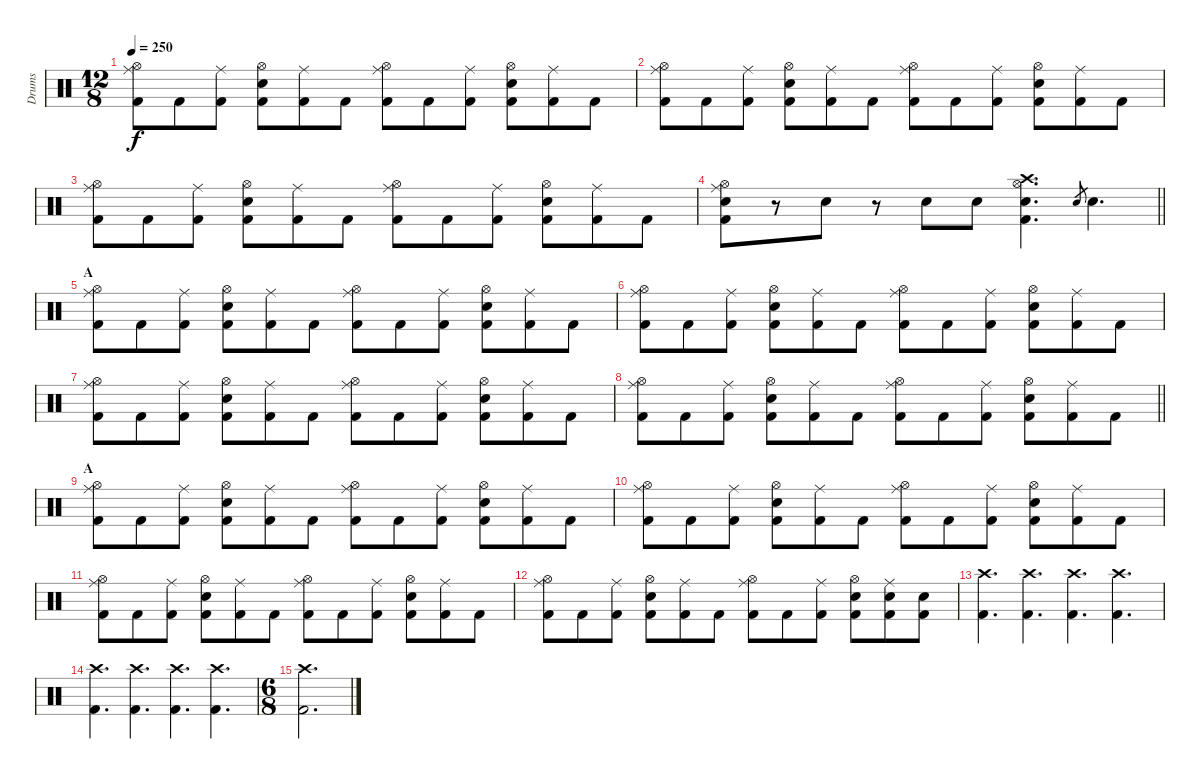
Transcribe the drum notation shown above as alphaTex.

\track ("Drums" "Drums") {instrument percussion}
\staff {score}
\articulation defaults
\ts (12 8)
\tempo 250
\clef neutral
\ks c
("Ride (middle)" "Hi-Hat (open)" "Kick (hit) 2").8{dy f} "Kick (hit) 2".8 ("Ride (middle)" "Kick (hit) 2").8 ("Hi-Hat (open)" "Snare (hit) 2" "Kick (hit) 2").8 ("Ride (middle)" "Kick (hit) 2").8 "Kick (hit) 2".8 ("Ride (middle)" "Hi-Hat (open)" "Kick (hit) 2").8 "Kick (hit) 2".8 ("Ride (middle)" "Kick (hit) 2").8 ("Hi-Hat (open)" "Snare (hit) 2" "Kick (hit) 2").8 ("Ride (middle)" "Kick (hit) 2").8 "Kick (hit) 2".8 |
("Ride (middle)" "Hi-Hat (open)" "Kick (hit) 2").8 "Kick (hit) 2".8 ("Ride (middle)" "Kick (hit) 2").8 ("Hi-Hat (open)" "Snare (hit) 2" "Kick (hit) 2").8 ("Ride (middle)" "Kick (hit) 2").8 "Kick (hit) 2".8 ("Ride (middle)" "Hi-Hat (open)" "Kick (hit) 2").8 "Kick (hit) 2".8 ("Ride (middle)" "Kick (hit) 2").8 ("Hi-Hat (open)" "Snare (hit) 2" "Kick (hit) 2").8 ("Ride (middle)" "Kick (hit) 2").8 "Kick (hit) 2".8 |
("Ride (middle)" "Hi-Hat (open)" "Kick (hit) 2").8 "Kick (hit) 2".8 ("Ride (middle)" "Kick (hit) 2").8 ("Hi-Hat (open)" "Snare (hit) 2" "Kick (hit) 2").8 ("Ride (middle)" "Kick (hit) 2").8 "Kick (hit) 2".8 ("Ride (middle)" "Hi-Hat (open)" "Kick (hit) 2").8 "Kick (hit) 2".8 ("Ride (middle)" "Kick (hit) 2").8 ("Hi-Hat (open)" "Snare (hit) 2" "Kick (hit) 2").8 ("Ride (middle)" "Kick (hit) 2").8 "Kick (hit) 2".8 |
\barLineRight lightlight
("Ride (middle)" "Hi-Hat (open)" "Snare (hit) 2" "Kick (hit) 2").8 r.8 "Snare (hit) 2".8 r.8 "Snare (hit) 2".8 "Snare (hit) 2".8 ("Crash high (hit)" "Hi-Hat (open)" "Snare (hit) 2" "Kick (hit) 2").4{d} "Snare (hit) 2".8{gr} "Snare (hit) 2".4{d} |
\section ("" "A")
("Ride (middle)" "Hi-Hat (open)" "Kick (hit) 2").8 "Kick (hit) 2".8 ("Ride (middle)" "Kick (hit) 2").8 ("Hi-Hat (open)" "Snare (hit) 2" "Kick (hit) 2").8 ("Ride (middle)" "Kick (hit) 2").8 "Kick (hit) 2".8 ("Ride (middle)" "Hi-Hat (open)" "Kick (hit) 2").8 "Kick (hit) 2".8 ("Ride (middle)" "Kick (hit) 2").8 ("Hi-Hat (open)" "Snare (hit) 2" "Kick (hit) 2").8 ("Ride (middle)" "Kick (hit) 2").8 "Kick (hit) 2".8 |
("Ride (middle)" "Hi-Hat (open)" "Kick (hit) 2").8 "Kick (hit) 2".8 ("Ride (middle)" "Kick (hit) 2").8 ("Hi-Hat (open)" "Snare (hit) 2" "Kick (hit) 2").8 ("Ride (middle)" "Kick (hit) 2").8 "Kick (hit) 2".8 ("Ride (middle)" "Hi-Hat (open)" "Kick (hit) 2").8 "Kick (hit) 2".8 ("Ride (middle)" "Kick (hit) 2").8 ("Hi-Hat (open)" "Snare (hit) 2" "Kick (hit) 2").8 ("Ride (middle)" "Kick (hit) 2").8 "Kick (hit) 2".8 |
("Ride (middle)" "Hi-Hat (open)" "Kick (hit) 2").8 "Kick (hit) 2".8 ("Ride (middle)" "Kick (hit) 2").8 ("Hi-Hat (open)" "Snare (hit) 2" "Kick (hit) 2").8 ("Ride (middle)" "Kick (hit) 2").8 "Kick (hit) 2".8 ("Ride (middle)" "Hi-Hat (open)" "Kick (hit) 2").8 "Kick (hit) 2".8 ("Ride (middle)" "Kick (hit) 2").8 ("Hi-Hat (open)" "Snare (hit) 2" "Kick (hit) 2").8 ("Ride (middle)" "Kick (hit) 2").8 "Kick (hit) 2".8 |
\barLineRight lightlight
("Ride (middle)" "Hi-Hat (open)" "Kick (hit) 2").8 "Kick (hit) 2".8 ("Ride (middle)" "Kick (hit) 2").8 ("Hi-Hat (open)" "Snare (hit) 2" "Kick (hit) 2").8 ("Ride (middle)" "Kick (hit) 2").8 "Kick (hit) 2".8 ("Ride (middle)" "Hi-Hat (open)" "Kick (hit) 2").8 "Kick (hit) 2".8 ("Ride (middle)" "Kick (hit) 2").8 ("Hi-Hat (open)" "Snare (hit) 2" "Kick (hit) 2").8 ("Ride (middle)" "Kick (hit) 2").8 "Kick (hit) 2".8 |
\section ("" "A")
("Ride (middle)" "Hi-Hat (open)" "Kick (hit) 2").8 "Kick (hit) 2".8 ("Ride (middle)" "Kick (hit) 2").8 ("Hi-Hat (open)" "Snare (hit) 2" "Kick (hit) 2").8 ("Ride (middle)" "Kick (hit) 2").8 "Kick (hit) 2".8 ("Ride (middle)" "Hi-Hat (open)" "Kick (hit) 2").8 "Kick (hit) 2".8 ("Ride (middle)" "Kick (hit) 2").8 ("Hi-Hat (open)" "Snare (hit) 2" "Kick (hit) 2").8 ("Ride (middle)" "Kick (hit) 2").8 "Kick (hit) 2".8 |
("Ride (middle)" "Hi-Hat (open)" "Kick (hit) 2").8 "Kick (hit) 2".8 ("Ride (middle)" "Kick (hit) 2").8 ("Hi-Hat (open)" "Snare (hit) 2" "Kick (hit) 2").8 ("Ride (middle)" "Kick (hit) 2").8 "Kick (hit) 2".8 ("Ride (middle)" "Hi-Hat (open)" "Kick (hit) 2").8 "Kick (hit) 2".8 ("Ride (middle)" "Kick (hit) 2").8 ("Hi-Hat (open)" "Snare (hit) 2" "Kick (hit) 2").8 ("Ride (middle)" "Kick (hit) 2").8 "Kick (hit) 2".8 |
("Ride (middle)" "Hi-Hat (open)" "Kick (hit) 2").8 "Kick (hit) 2".8 ("Ride (middle)" "Kick (hit) 2").8 ("Hi-Hat (open)" "Snare (hit) 2" "Kick (hit) 2").8 ("Ride (middle)" "Kick (hit) 2").8 "Kick (hit) 2".8 ("Ride (middle)" "Hi-Hat (open)" "Kick (hit) 2").8 "Kick (hit) 2".8 ("Ride (middle)" "Kick (hit) 2").8 ("Hi-Hat (open)" "Snare (hit) 2" "Kick (hit) 2").8 ("Ride (middle)" "Kick (hit) 2").8 "Kick (hit) 2".8 |
("Ride (middle)" "Hi-Hat (open)" "Kick (hit) 2").8 "Kick (hit) 2".8 ("Ride (middle)" "Kick (hit) 2").8 ("Hi-Hat (open)" "Snare (hit) 2" "Kick (hit) 2").8 ("Ride (middle)" "Kick (hit) 2").8 "Kick (hit) 2".8 ("Ride (middle)" "Hi-Hat (open)" "Kick (hit) 2").8 "Kick (hit) 2".8 ("Ride (middle)" "Kick (hit) 2").8 ("Hi-Hat (open)" "Snare (hit) 2" "Kick (hit) 2").8 ("Ride (middle)" "Snare (hit) 2" "Kick (hit) 2").8 ("Snare (hit) 2" "Kick (hit) 2").8 |
("Crash high (hit)" "Kick (hit) 2").4{d} ("Crash high (hit)" "Kick (hit) 2").4{d} ("Crash high (hit)" "Kick (hit) 2").4{d} ("Crash high (hit)" "Kick (hit) 2").4{d} |
("Crash high (hit)" "Kick (hit) 2").4{d} ("Crash high (hit)" "Kick (hit) 2").4{d} ("Crash high (hit)" "Kick (hit) 2").4{d} ("Crash high (hit)" "Kick (hit) 2").4{d} |
\ts (6 8)
("Crash high (hit)" "Kick (hit) 2").2{d}
